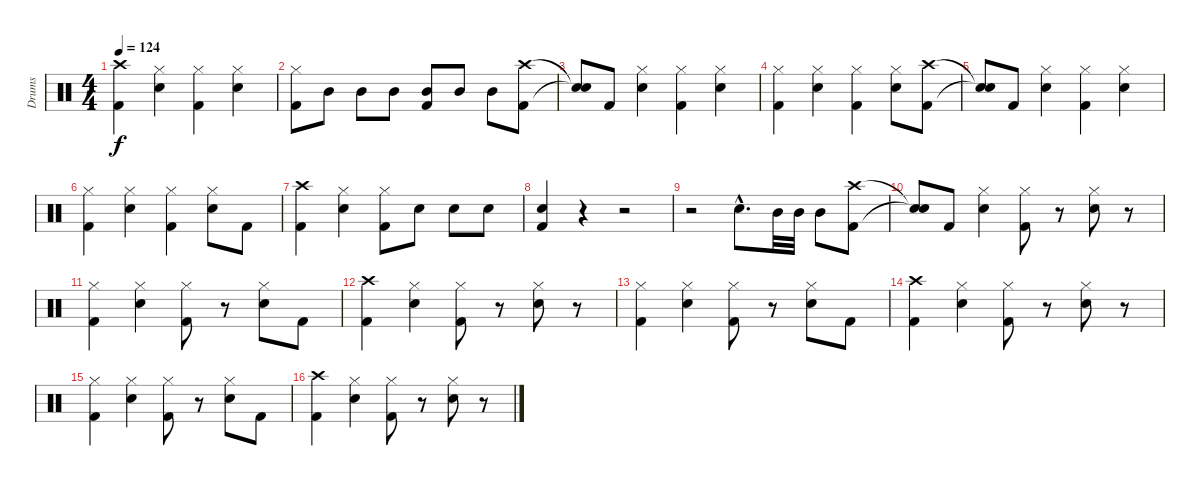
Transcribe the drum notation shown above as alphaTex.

\track ("Drums" "Drums") {instrument percussion}
\staff {score}
\articulation defaults
\ts (4 4)
\tempo 124
\clef neutral
\ks c
("Crash high (hit)" "Kick (hit) 2").4{dy f} ("Hi-Hat (closed)" "Snare (hit) 2").4 ("Hi-Hat (closed)" "Kick (hit) 2").4 ("Hi-Hat (closed)" "Snare (hit) 2").4 |
("Hi-Hat (closed)" "Kick (hit) 2").8 "Mid Tom (hit)".8 "Mid Tom (hit)".8 "Mid Tom (hit)".8 ("Mid Tom (hit)" "Kick (hit) 2").8 "Mid Tom (hit)".8 "Mid Tom (hit)".8 ("Crash high (hit)" "Kick (hit) 2").8 |
("Snare (hit)"{t} "Snare (hit)"{t}).8 "Kick (hit) 2".8 ("Hi-Hat (closed)" "Snare (hit) 2").4 ("Hi-Hat (closed)" "Kick (hit) 2").4 ("Hi-Hat (closed)" "Snare (hit) 2").4 |
("Hi-Hat (closed)" "Kick (hit) 2").4 ("Hi-Hat (closed)" "Snare (hit) 2").4 ("Hi-Hat (closed)" "Kick (hit) 2").4 ("Hi-Hat (closed)" "Snare (hit) 2").8 ("Crash high (hit)" "Kick (hit) 2").8 |
("Snare (hit)"{t} "Snare (hit)"{t}).8 "Kick (hit) 2".8 ("Hi-Hat (closed)" "Snare (hit) 2").4 ("Hi-Hat (closed)" "Kick (hit) 2").4 ("Hi-Hat (closed)" "Snare (hit) 2").4 |
("Hi-Hat (closed)" "Kick (hit) 2").4 ("Hi-Hat (closed)" "Snare (hit) 2").4 ("Hi-Hat (closed)" "Kick (hit) 2").4 ("Hi-Hat (closed)" "Snare (hit) 2").8 "Kick (hit) 2".8 |
("Crash high (hit)" "Kick (hit) 2").4 ("Hi-Hat (closed)" "Snare (hit) 2").4 ("Hi-Hat (closed)" "Kick (hit) 2").8 "Snare (hit) 2".8 "Snare (hit) 2".8 "Snare (hit) 2".8 |
("Snare (hit) 2" "Kick (hit) 2").4 r.4 r.2 |
r.2 "Snare (hit) 2"{hac}.8{d} "Mid Tom (hit)".32 "Mid Tom (hit)".32 "Mid Tom (hit)".8 ("Crash high (hit)" "Kick (hit) 2").8 |
("Snare (hit)"{t} "Snare (hit)"{t}).8 "Kick (hit) 2".8 ("Hi-Hat (closed)" "Snare (hit) 2").4 ("Hi-Hat (closed)" "Kick (hit) 2").8 r.8 ("Hi-Hat (closed)" "Snare (hit) 2").8 r.8 |
("Hi-Hat (closed)" "Kick (hit) 2").4 ("Hi-Hat (closed)" "Snare (hit) 2").4 ("Hi-Hat (closed)" "Kick (hit) 2").8 r.8 ("Hi-Hat (closed)" "Snare (hit) 2").8 "Kick (hit) 2".8 |
("Crash high (hit)" "Kick (hit) 2").4 ("Hi-Hat (closed)" "Snare (hit) 2").4 ("Hi-Hat (closed)" "Kick (hit) 2").8 r.8 ("Hi-Hat (closed)" "Snare (hit) 2").8 r.8 |
("Hi-Hat (closed)" "Kick (hit) 2").4 ("Hi-Hat (closed)" "Snare (hit) 2").4 ("Hi-Hat (closed)" "Kick (hit) 2").8 r.8 ("Hi-Hat (closed)" "Snare (hit) 2").8 "Kick (hit) 2".8 |
("Crash high (hit)" "Kick (hit) 2").4 ("Hi-Hat (closed)" "Snare (hit) 2").4 ("Hi-Hat (closed)" "Kick (hit) 2").8 r.8 ("Hi-Hat (closed)" "Snare (hit) 2").8 r.8 |
("Hi-Hat (closed)" "Kick (hit) 2").4 ("Hi-Hat (closed)" "Snare (hit) 2").4 ("Hi-Hat (closed)" "Kick (hit) 2").8 r.8 ("Hi-Hat (closed)" "Snare (hit) 2").8 "Kick (hit) 2".8 |
("Crash high (hit)" "Kick (hit) 2").4 ("Hi-Hat (closed)" "Snare (hit) 2").4 ("Hi-Hat (closed)" "Kick (hit) 2").8 r.8 ("Hi-Hat (closed)" "Snare (hit) 2").8 r.8
